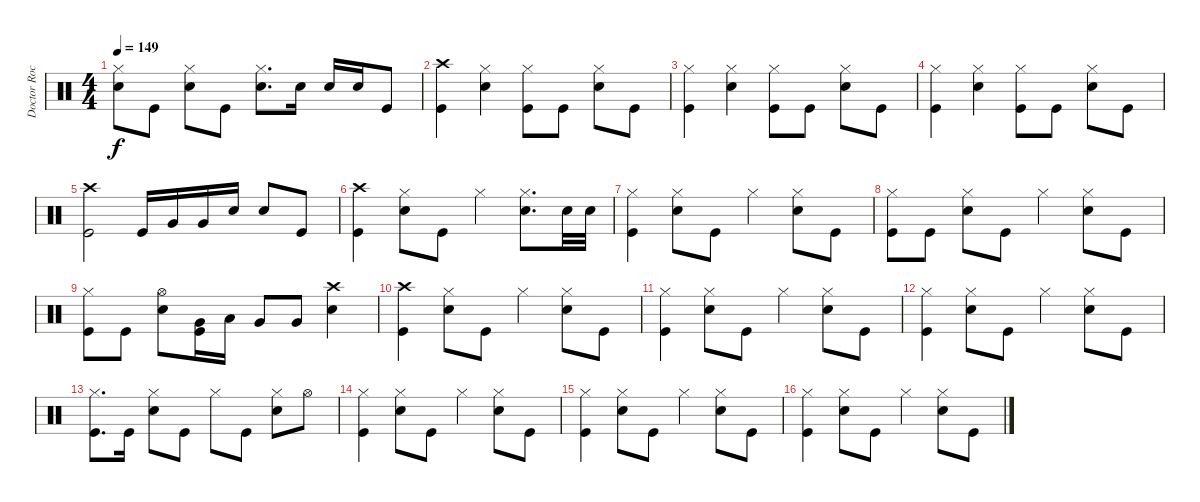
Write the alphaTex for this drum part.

\track ("Doctor Rock" "Doctor Roc") {instrument percussion}
\staff {score}
\articulation defaults
\ts (4 4)
\tempo 149
\clef neutral
\ks c
("Hi-Hat (closed)" "Snare (hit) 2").8{dy f} "Kick (hit)".8 ("Hi-Hat (closed)" "Snare (hit) 2").8 "Kick (hit)".8 ("Hi-Hat (closed)" "Snare (hit) 2").8{d} "Snare (hit) 2".16 "Snare (hit) 2".16 "Snare (hit) 2".16 "Kick (hit)".8 |
("Crash high (hit)" "Kick (hit)").4 ("Hi-Hat (closed)" "Snare (hit) 2").4 ("Hi-Hat (closed)" "Kick (hit)").8 "Kick (hit)".8 ("Hi-Hat (closed)" "Snare (hit) 2").8 "Kick (hit)".8 |
("Hi-Hat (closed)" "Kick (hit)").4 ("Hi-Hat (closed)" "Snare (hit) 2").4 ("Hi-Hat (closed)" "Kick (hit)").8 "Kick (hit)".8 ("Hi-Hat (closed)" "Snare (hit) 2").8 "Kick (hit)".8 |
("Hi-Hat (closed)" "Kick (hit)").4 ("Hi-Hat (closed)" "Snare (hit) 2").4 ("Hi-Hat (closed)" "Kick (hit)").8 "Kick (hit)".8 ("Hi-Hat (closed)" "Snare (hit) 2").8 "Kick (hit)".8 |
("Crash high (hit)" "Kick (hit)").2 "Kick (hit)".16 "Very Low Tom (hit)".16 "Very Low Tom (hit)".16 "Snare (hit) 2".16 "Snare (hit) 2".8 "Kick (hit)".8 |
("Crash high (hit)" "Kick (hit)").4 ("Hi-Hat (closed)" "Snare (hit) 2").8 "Kick (hit)".8 "Hi-Hat (closed)".4 ("Hi-Hat (closed)" "Snare (hit) 2").8{d} "Snare (hit) 2".32 "Snare (hit) 2".32 |
("Hi-Hat (closed)" "Kick (hit)").4 ("Hi-Hat (closed)" "Snare (hit) 2").8 "Kick (hit)".8 "Hi-Hat (closed)".4 ("Hi-Hat (closed)" "Snare (hit) 2").8 "Kick (hit)".8 |
("Hi-Hat (closed)" "Kick (hit)").8 "Kick (hit)".8 ("Hi-Hat (closed)" "Snare (hit) 2").8 "Kick (hit)".8 "Hi-Hat (closed)".4 ("Hi-Hat (closed)" "Snare (hit) 2").8 "Kick (hit)".8 |
("Hi-Hat (closed)" "Kick (hit)").8 "Kick (hit)".8 ("Hi-Hat (open)" "Snare (hit) 2").8 ("Kick (hit)" "Very Low Tom (hit)").16 "Low Tom (hit)".16 "Very Low Tom (hit)".8 "Very Low Tom (hit)".8 ("Crash high (hit)" "Snare (hit) 2").4 |
("Crash high (hit)" "Kick (hit)").4 ("Hi-Hat (closed)" "Snare (hit) 2").8 "Kick (hit)".8 "Hi-Hat (closed)".4 ("Hi-Hat (closed)" "Snare (hit) 2").8 "Kick (hit)".8 |
("Hi-Hat (closed)" "Kick (hit)").4 ("Hi-Hat (closed)" "Snare (hit) 2").8 "Kick (hit)".8 "Hi-Hat (closed)".4 ("Hi-Hat (closed)" "Snare (hit) 2").8 "Kick (hit)".8 |
("Hi-Hat (closed)" "Kick (hit)").4 ("Hi-Hat (closed)" "Snare (hit) 2").8 "Kick (hit)".8 "Hi-Hat (closed)".4 ("Hi-Hat (closed)" "Snare (hit) 2").8 "Kick (hit)".8 |
("Hi-Hat (closed)" "Kick (hit)").8{d} "Kick (hit)".16 ("Hi-Hat (closed)" "Snare (hit) 2").8 "Kick (hit)".8 "Hi-Hat (closed)".8 "Kick (hit)".8 ("Hi-Hat (closed)" "Snare (hit) 2").8 "Hi-Hat (open)".8 |
("Hi-Hat (closed)" "Kick (hit)").4 ("Hi-Hat (closed)" "Snare (hit) 2").8 "Kick (hit)".8 "Hi-Hat (closed)".4 ("Hi-Hat (closed)" "Snare (hit) 2").8 "Kick (hit)".8 |
("Hi-Hat (closed)" "Kick (hit)").4 ("Hi-Hat (closed)" "Snare (hit) 2").8 "Kick (hit)".8 "Hi-Hat (closed)".4 ("Hi-Hat (closed)" "Snare (hit) 2").8 "Kick (hit)".8 |
("Hi-Hat (closed)" "Kick (hit)").4 ("Hi-Hat (closed)" "Snare (hit) 2").8 "Kick (hit)".8 "Hi-Hat (closed)".4 ("Hi-Hat (closed)" "Snare (hit) 2").8 "Kick (hit)".8
